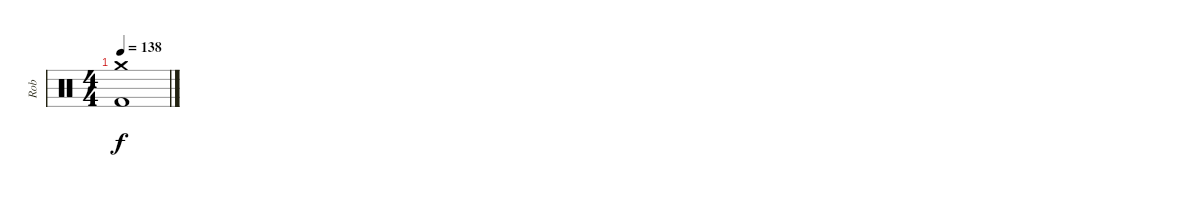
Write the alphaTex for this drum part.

\track ("Rob" "Rob") {instrument percussion}
\staff {score}
\articulation defaults
\ts (4 4)
\tempo 138
\clef neutral
\ks c
("Crash medium (hit)" "Kick (hit) 2").1{dy f}
